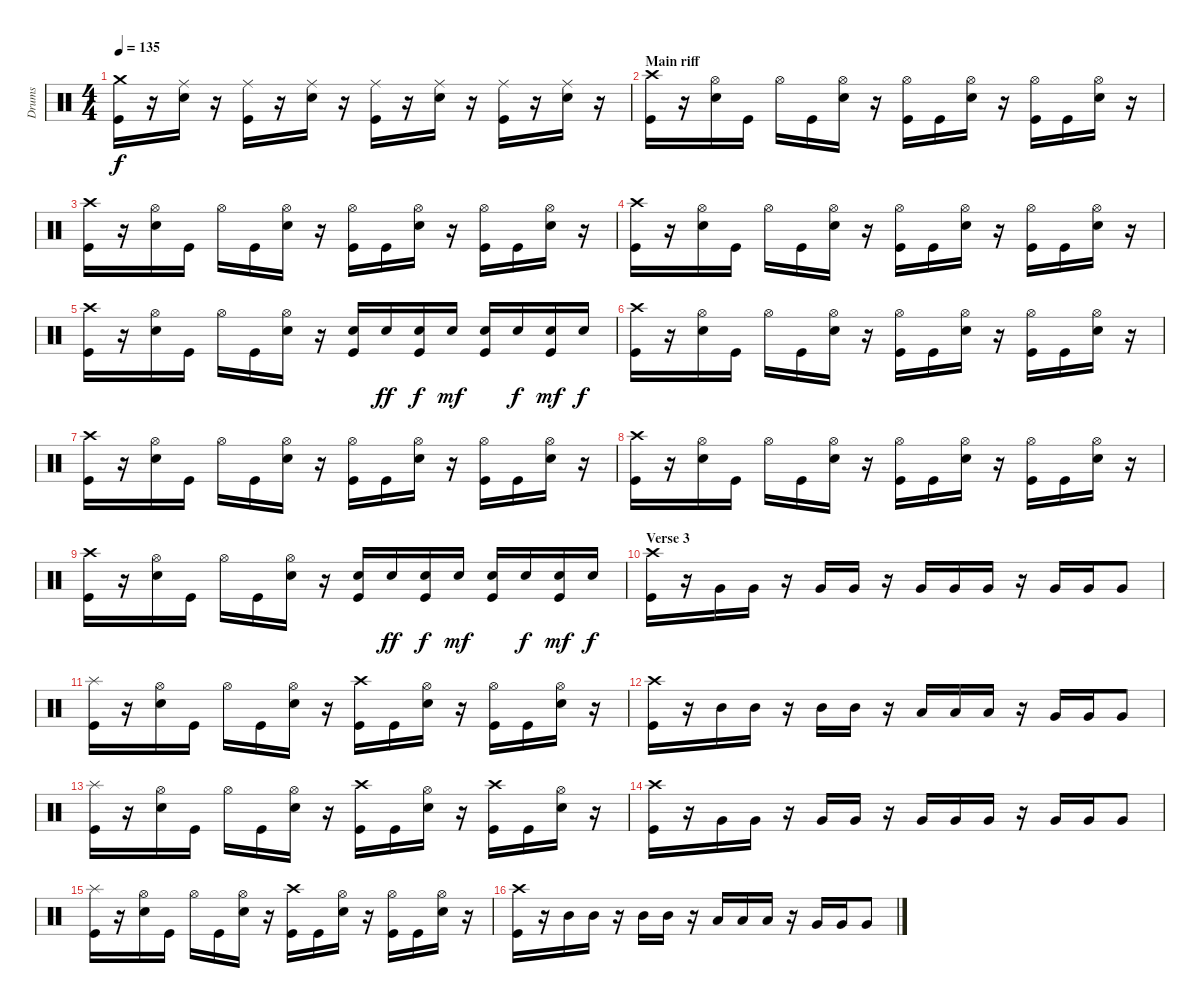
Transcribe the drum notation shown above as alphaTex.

\track ("Drums" "Drums") {instrument percussion}
\staff {score}
\articulation defaults
\ts (4 4)
\tempo 135
\clef neutral
\ks c
("Crash medium (hit)" "Kick (hit)").16{dy f} r.16 ("Ride (middle)" "Snare (hit) 2").16 r.16 ("Ride (middle)" "Kick (hit)").16 r.16 ("Ride (middle)" "Snare (hit) 2").16 r.16 ("Ride (middle)" "Kick (hit)").16 r.16 ("Ride (middle)" "Snare (hit) 2").16 r.16 ("Ride (middle)" "Kick (hit)").16 r.16 ("Ride (middle)" "Snare (hit) 2").16 r.16 |
\section ("" "Main riff")
("Crash high (hit)" "Kick (hit)").16 r.16 ("Hi-Hat (open)" "Snare (hit) 2").16 "Kick (hit)".16 "Hi-Hat (open)".16 "Kick (hit)".16 ("Hi-Hat (open)" "Snare (hit) 2").16 r.16 ("Hi-Hat (open)" "Kick (hit)").16 "Kick (hit)".16 ("Hi-Hat (open)" "Snare (hit) 2").16 r.16 ("Hi-Hat (open)" "Kick (hit)").16 "Kick (hit)".16 ("Hi-Hat (open)" "Snare (hit) 2").16 r.16 |
("Crash high (hit)" "Kick (hit)").16 r.16 ("Hi-Hat (open)" "Snare (hit) 2").16 "Kick (hit)".16 "Hi-Hat (open)".16 "Kick (hit)".16 ("Hi-Hat (open)" "Snare (hit) 2").16 r.16 ("Hi-Hat (open)" "Kick (hit)").16 "Kick (hit)".16 ("Hi-Hat (open)" "Snare (hit) 2").16 r.16 ("Hi-Hat (open)" "Kick (hit)").16 "Kick (hit)".16 ("Hi-Hat (open)" "Snare (hit) 2").16 r.16 |
("Crash high (hit)" "Kick (hit)").16 r.16 ("Hi-Hat (open)" "Snare (hit) 2").16 "Kick (hit)".16 "Hi-Hat (open)".16 "Kick (hit)".16 ("Hi-Hat (open)" "Snare (hit) 2").16 r.16 ("Hi-Hat (open)" "Kick (hit)").16 "Kick (hit)".16 ("Hi-Hat (open)" "Snare (hit) 2").16 r.16 ("Hi-Hat (open)" "Kick (hit)").16 "Kick (hit)".16 ("Hi-Hat (open)" "Snare (hit) 2").16 r.16 |
("Crash high (hit)" "Kick (hit)").16 r.16 ("Hi-Hat (open)" "Snare (hit) 2").16 "Kick (hit)".16 "Hi-Hat (open)".16 "Kick (hit)".16 ("Hi-Hat (open)" "Snare (hit) 2").16 r.16 ("Snare (hit) 2" "Kick (hit)").16 "Snare (hit) 2".16{dy ff} ("Snare (hit) 2" "Kick (hit)").16{dy f} "Snare (hit) 2".16{dy mf} ("Snare (hit) 2" "Kick (hit)").16 "Snare (hit) 2".16{dy f} ("Snare (hit) 2" "Kick (hit)").16{dy mf} "Snare (hit) 2".16{dy f} |
("Crash high (hit)" "Kick (hit)").16 r.16 ("Hi-Hat (open)" "Snare (hit) 2").16 "Kick (hit)".16 "Hi-Hat (open)".16 "Kick (hit)".16 ("Hi-Hat (open)" "Snare (hit) 2").16 r.16 ("Hi-Hat (open)" "Kick (hit)").16 "Kick (hit)".16 ("Hi-Hat (open)" "Snare (hit) 2").16 r.16 ("Hi-Hat (open)" "Kick (hit)").16 "Kick (hit)".16 ("Hi-Hat (open)" "Snare (hit) 2").16 r.16 |
("Crash high (hit)" "Kick (hit)").16 r.16 ("Hi-Hat (open)" "Snare (hit) 2").16 "Kick (hit)".16 "Hi-Hat (open)".16 "Kick (hit)".16 ("Hi-Hat (open)" "Snare (hit) 2").16 r.16 ("Hi-Hat (open)" "Kick (hit)").16 "Kick (hit)".16 ("Hi-Hat (open)" "Snare (hit) 2").16 r.16 ("Hi-Hat (open)" "Kick (hit)").16 "Kick (hit)".16 ("Hi-Hat (open)" "Snare (hit) 2").16 r.16 |
("Crash high (hit)" "Kick (hit)").16 r.16 ("Hi-Hat (open)" "Snare (hit) 2").16 "Kick (hit)".16 "Hi-Hat (open)".16 "Kick (hit)".16 ("Hi-Hat (open)" "Snare (hit) 2").16 r.16 ("Hi-Hat (open)" "Kick (hit)").16 "Kick (hit)".16 ("Hi-Hat (open)" "Snare (hit) 2").16 r.16 ("Hi-Hat (open)" "Kick (hit)").16 "Kick (hit)".16 ("Hi-Hat (open)" "Snare (hit) 2").16 r.16 |
("Crash high (hit)" "Kick (hit)").16 r.16 ("Hi-Hat (open)" "Snare (hit) 2").16 "Kick (hit)".16 "Hi-Hat (open)".16 "Kick (hit)".16 ("Hi-Hat (open)" "Snare (hit) 2").16 r.16 ("Snare (hit) 2" "Kick (hit)").16 "Snare (hit) 2".16{dy ff} ("Snare (hit) 2" "Kick (hit)").16{dy f} "Snare (hit) 2".16{dy mf} ("Snare (hit) 2" "Kick (hit)").16 "Snare (hit) 2".16{dy f} ("Snare (hit) 2" "Kick (hit)").16{dy mf} "Snare (hit) 2".16{dy f} |
\section ("" "Verse 3")
("Crash high (hit)" "Kick (hit)").16 r.16 "Very Low Tom (hit)".16 "Very Low Tom (hit)".16 r.16 "Very Low Tom (hit)".16 "Very Low Tom (hit)".16 r.16 "Very Low Tom (hit)".16 "Very Low Tom (hit)".16 "Very Low Tom (hit)".16 r.16 "Very Low Tom (hit)".16 "Very Low Tom (hit)".16 "Very Low Tom (hit)".8 |
("Splash (hit)" "Kick (hit)").16 r.16 ("Hi-Hat (open)" "Snare (hit) 2").16 "Kick (hit)".16 "Hi-Hat (open)".16 "Kick (hit)".16 ("Hi-Hat (open)" "Snare (hit) 2").16 r.16 ("Crash high (hit)" "Kick (hit)").16 "Kick (hit)".16 ("Hi-Hat (open)" "Snare (hit) 2").16 r.16 ("Hi-Hat (open)" "Kick (hit)").16 "Kick (hit)".16 ("Hi-Hat (open)" "Snare (hit) 2").16 r.16 |
("Crash high (hit)" "Kick (hit)").16 r.16 "Mid Tom (hit)".16 "Mid Tom (hit)".16 r.16 "Mid Tom (hit)".16 "Mid Tom (hit)".16 r.16 "Low Tom (hit)".16 "Low Tom (hit)".16 "Low Tom (hit)".16 r.16 "Very Low Tom (hit)".16 "Very Low Tom (hit)".16 "Very Low Tom (hit)".8 |
("Splash (hit)" "Kick (hit)").16 r.16 ("Hi-Hat (open)" "Snare (hit) 2").16 "Kick (hit)".16 "Hi-Hat (open)".16 "Kick (hit)".16 ("Hi-Hat (open)" "Snare (hit) 2").16 r.16 ("Crash high (hit)" "Kick (hit)").16 "Kick (hit)".16 ("Hi-Hat (open)" "Snare (hit) 2").16 r.16 ("Crash high (hit)" "Kick (hit)").16 "Kick (hit)".16 ("Hi-Hat (open)" "Snare (hit) 2").16 r.16 |
("Crash high (hit)" "Kick (hit)").16 r.16 "Very Low Tom (hit)".16 "Very Low Tom (hit)".16 r.16 "Very Low Tom (hit)".16 "Very Low Tom (hit)".16 r.16 "Very Low Tom (hit)".16 "Very Low Tom (hit)".16 "Very Low Tom (hit)".16 r.16 "Very Low Tom (hit)".16 "Very Low Tom (hit)".16 "Very Low Tom (hit)".8 |
("Splash (hit)" "Kick (hit)").16 r.16 ("Hi-Hat (open)" "Snare (hit) 2").16 "Kick (hit)".16 "Hi-Hat (open)".16 "Kick (hit)".16 ("Hi-Hat (open)" "Snare (hit) 2").16 r.16 ("Crash high (hit)" "Kick (hit)").16 "Kick (hit)".16 ("Hi-Hat (open)" "Snare (hit) 2").16 r.16 ("Hi-Hat (open)" "Kick (hit)").16 "Kick (hit)".16 ("Hi-Hat (open)" "Snare (hit) 2").16 r.16 |
("Crash high (hit)" "Kick (hit)").16 r.16 "Mid Tom (hit)".16 "Mid Tom (hit)".16 r.16 "Mid Tom (hit)".16 "Mid Tom (hit)".16 r.16 "Low Tom (hit)".16 "Low Tom (hit)".16 "Low Tom (hit)".16 r.16 "Very Low Tom (hit)".16 "Very Low Tom (hit)".16 "Very Low Tom (hit)".8
